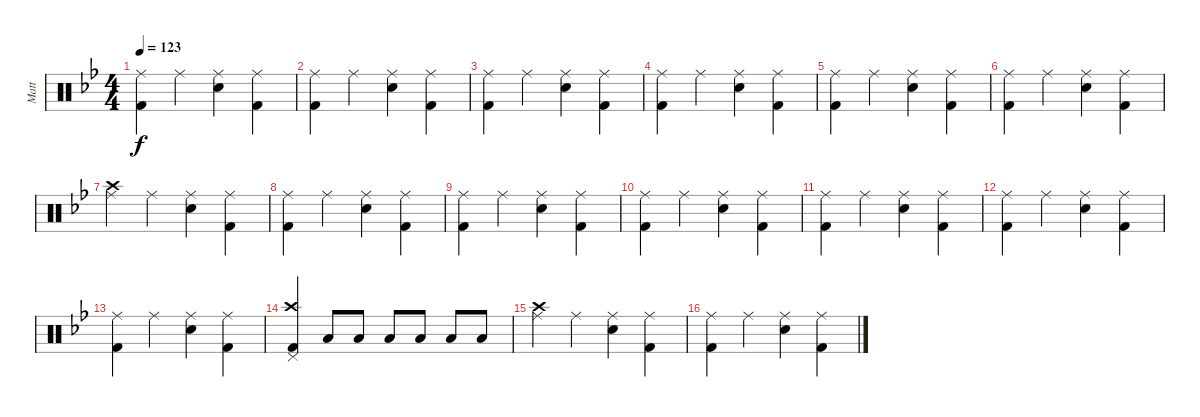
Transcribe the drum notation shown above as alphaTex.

\track ("Matt" "Matt") {instrument percussion}
\staff {score}
\articulation defaults
\ts (4 4)
\tempo 123
\clef neutral
\ks bb
("Ride (middle)" "Kick (hit) 2").4{dy f} "Ride (middle)".4 ("Ride (middle)" "Snare (hit) 2").4 ("Ride (middle)" "Kick (hit) 2").4 |
("Ride (middle)" "Kick (hit) 2").4 "Ride (middle)".4 ("Ride (middle)" "Snare (hit) 2").4 ("Ride (middle)" "Kick (hit) 2").4 |
("Ride (middle)" "Kick (hit) 2").4 "Ride (middle)".4 ("Ride (middle)" "Snare (hit) 2").4 ("Ride (middle)" "Kick (hit) 2").4 |
("Ride (middle)" "Kick (hit) 2").4 "Ride (middle)".4 ("Ride (middle)" "Snare (hit) 2").4 ("Ride (middle)" "Kick (hit) 2").4 |
("Ride (middle)" "Kick (hit) 2").4 "Ride (middle)".4 ("Ride (middle)" "Snare (hit) 2").4 ("Ride (middle)" "Kick (hit) 2").4 |
("Ride (middle)" "Kick (hit) 2").4 "Ride (middle)".4 ("Ride (middle)" "Snare (hit) 2").4 ("Ride (middle)" "Kick (hit) 2").4 |
("Ride (middle)" "Crash high (hit)").4 "Ride (middle)".4 ("Ride (middle)" "Snare (hit) 2").4 ("Ride (middle)" "Kick (hit) 2").4 |
("Ride (middle)" "Kick (hit) 2").4 "Ride (middle)".4 ("Ride (middle)" "Snare (hit) 2").4 ("Ride (middle)" "Kick (hit) 2").4 |
("Ride (middle)" "Kick (hit) 2").4 "Ride (middle)".4 ("Ride (middle)" "Snare (hit) 2").4 ("Ride (middle)" "Kick (hit) 2").4 |
("Ride (middle)" "Kick (hit) 2").4 "Ride (middle)".4 ("Ride (middle)" "Snare (hit) 2").4 ("Ride (middle)" "Kick (hit) 2").4 |
("Ride (middle)" "Kick (hit) 2").4 "Ride (middle)".4 ("Ride (middle)" "Snare (hit) 2").4 ("Ride (middle)" "Kick (hit) 2").4 |
("Ride (middle)" "Kick (hit) 2").4 "Ride (middle)".4 ("Ride (middle)" "Snare (hit) 2").4 ("Ride (middle)" "Kick (hit) 2").4 |
("Ride (middle)" "Kick (hit) 2").4 "Ride (middle)".4 ("Ride (middle)" "Snare (hit) 2").4 ("Ride (middle)" "Kick (hit) 2").4 |
("Pedal Hi-Hat (hit)" "Kick (hit) 2" "Crash high (hit)").4 "Low Floor Tom (hit)".8 "Low Floor Tom (hit)".8 "Low Floor Tom (hit)".8 "Low Floor Tom (hit)".8 "Low Floor Tom (hit)".8 "Low Floor Tom (hit)".8 |
("Ride (middle)" "Crash high (hit)").4 "Ride (middle)".4 ("Ride (middle)" "Snare (hit) 2").4 ("Ride (middle)" "Kick (hit) 2").4 |
("Ride (middle)" "Kick (hit) 2").4 "Ride (middle)".4 ("Ride (middle)" "Snare (hit) 2").4 ("Ride (middle)" "Kick (hit) 2").4
